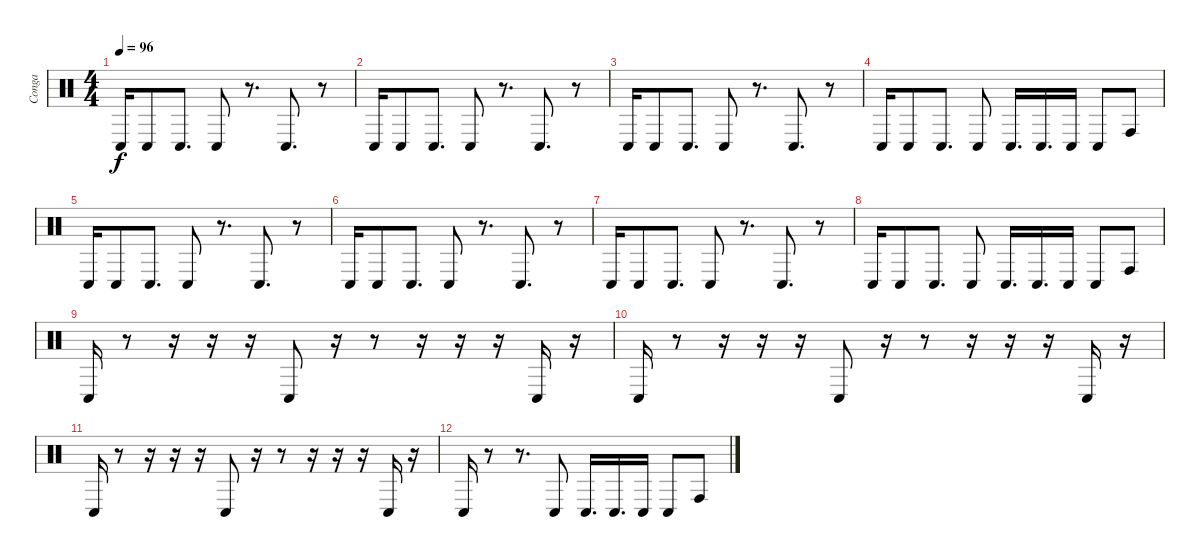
\track ("Conga" "Conga") {instrument percussion}
\staff {score}
\articulation defaults
\ts (4 4)
\tempo 96
\clef neutral
\ks c "Conga low (hit)".16{dy f} "Conga low (hit)".8 "Conga low (hit)".8{d} "Conga low (hit)".8
r.8{d} "Conga low (hit)".8{d} r.8 |
"Conga low (hit)".16 "Conga low (hit)".8 "Conga low (hit)".8{d} "Conga low (hit)".8 r.8{d} "Conga low (hit)".8{d} r.8 |
"Conga low (hit)".16 "Conga low (hit)".8 "Conga low (hit)".8{d} "Conga low (hit)".8 r.8{d} "Conga low (hit)".8{d} r.8 |
"Conga low (hit)".16 "Conga low (hit)".8 "Conga low (hit)".8{d} "Conga low (hit)".8 "Conga low (hit)".16{d} "Conga low (hit)".16{d} "Conga low (hit)".16 "Conga low (hit)".8 "Conga high (hit)".8 |
"Conga low (hit)".16 "Conga low (hit)".8 "Conga low (hit)".8{d} "Conga low (hit)".8 r.8{d} "Conga low (hit)".8{d} r.8 |
"Conga low (hit)".16 "Conga low (hit)".8 "Conga low (hit)".8{d} "Conga low (hit)".8 r.8{d} "Conga low (hit)".8{d} r.8 |
"Conga low (hit)".16 "Conga low (hit)".8 "Conga low (hit)".8{d} "Conga low (hit)".8 r.8{d} "Conga low (hit)".8{d} r.8 |
"Conga low (hit)".16 "Conga low (hit)".8 "Conga low (hit)".8{d} "Conga low (hit)".8 "Conga low (hit)".16{d} "Conga low (hit)".16{d} "Conga low (hit)".16 "Conga low (hit)".8 "Conga high (hit)".8 |
"Conga low (hit)".16 r.8 r.16 r.16 r.16 "Conga low (hit)".8 r.16 r.8 r.16 r.16 r.16 "Conga low (hit)".16 r.16 |
"Conga low (hit)".16 r.8 r.16 r.16 r.16 "Conga low (hit)".8 r.16 r.8 r.16 r.16 r.16 "Conga low (hit)".16 r.16 |
"Conga low (hit)".16 r.8 r.16 r.16 r.16 "Conga low (hit)".8 r.16 r.8 r.16 r.16 r.16 "Conga low (hit)".16 r.16 |
"Conga low (hit)".16 r.8 r.8{d} "Conga low (hit)".8 "Conga low (hit)".16{d} "Conga low (hit)".16{d} "Conga low (hit)".16 "Conga low (hit)".8 "Conga high (hit)".8
